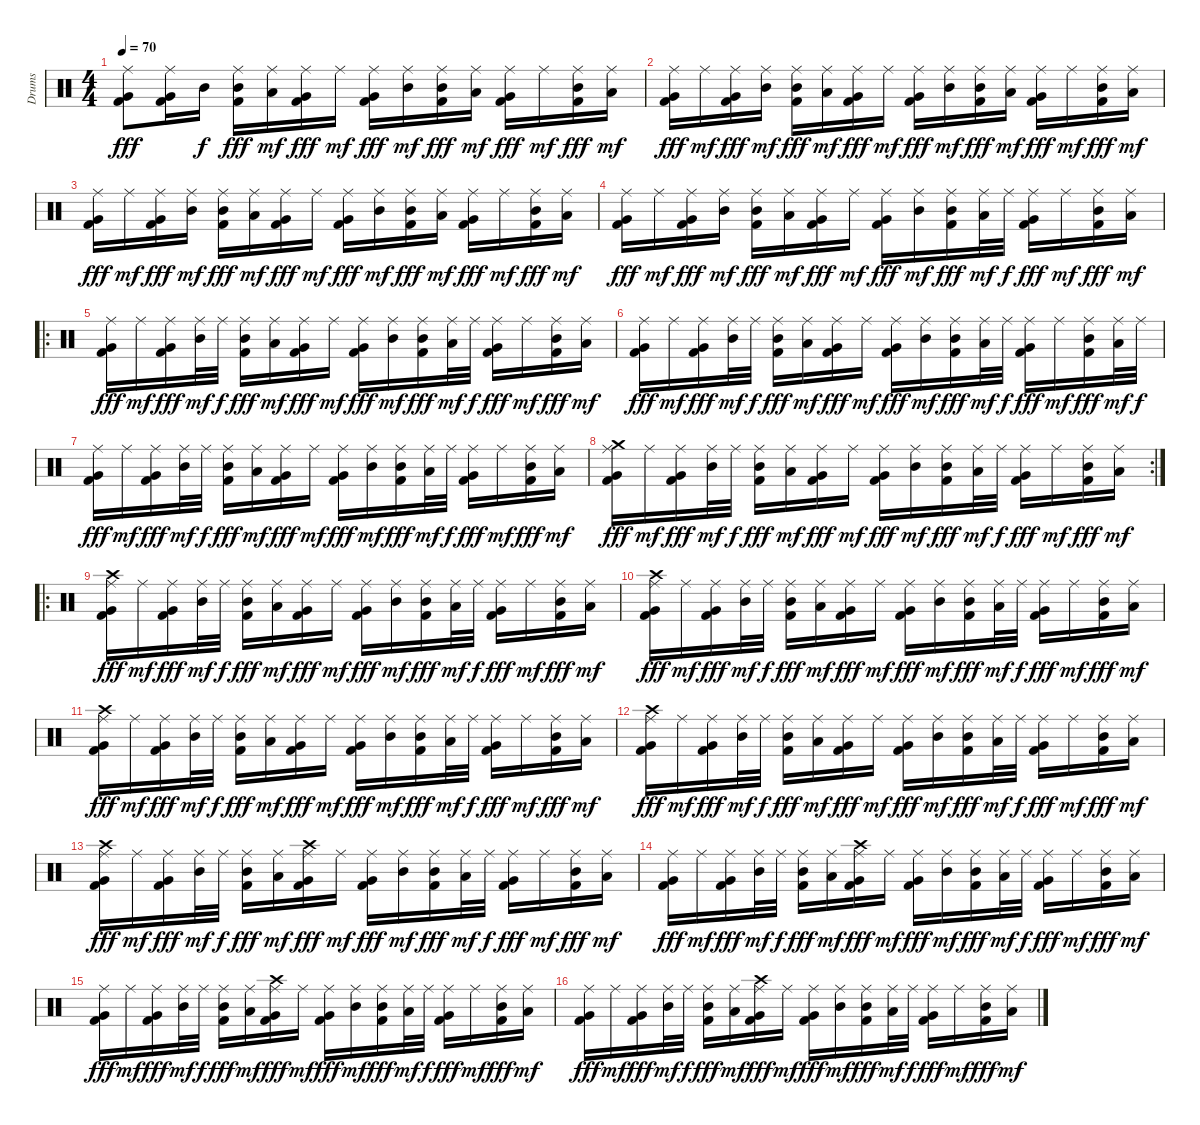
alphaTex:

\track ("Drums" "Drums") {instrument percussion}
\staff {score}
\articulation defaults
\ts (4 4)
\tempo 70
\clef neutral
\ks c
("Ride (middle)" "Kick (hit) 2" "Very Low Tom (hit)").8{dy fff} ("Ride (middle)" "Kick (hit) 2" "Very Low Tom (hit)").16 "Mid Tom (hit)".16{dy f} ("Ride (middle)" "Kick (hit) 2" "Mid Tom (hit)").16{dy fff} ("Ride (middle)" "Low Tom (hit)").16{dy mf} ("Ride (middle)" "Kick (hit) 2" "Very Low Tom (hit)").16{dy fff} "Ride (middle)".16{dy mf} ("Ride (middle)" "Kick (hit) 2" "Very Low Tom (hit)").16{dy fff} ("Ride (middle)" "Mid Tom (hit)").16{dy mf} ("Ride (middle)" "Kick (hit) 2" "Mid Tom (hit)").16{dy fff} ("Ride (middle)" "Low Tom (hit)").16{dy mf} ("Ride (middle)" "Kick (hit) 2" "Very Low Tom (hit)").16{dy fff} "Ride (middle)".16{dy mf} ("Ride (middle)" "Kick (hit) 2" "Mid Tom (hit)").16{dy fff} ("Ride (middle)" "Low Tom (hit)").16{dy mf} |
("Ride (middle)" "Kick (hit) 2" "Very Low Tom (hit)").16{dy fff} "Ride (middle)".16{dy mf} ("Ride (middle)" "Kick (hit) 2" "Very Low Tom (hit)").16{dy fff} ("Ride (middle)" "Mid Tom (hit)").16{dy mf} ("Ride (middle)" "Kick (hit) 2" "Mid Tom (hit)").16{dy fff} ("Ride (middle)" "Low Tom (hit)").16{dy mf} ("Ride (middle)" "Kick (hit) 2" "Very Low Tom (hit)").16{dy fff} "Ride (middle)".16{dy mf} ("Ride (middle)" "Kick (hit) 2" "Very Low Tom (hit)").16{dy fff} ("Ride (middle)" "Mid Tom (hit)").16{dy mf} ("Ride (middle)" "Kick (hit) 2" "Mid Tom (hit)").16{dy fff} ("Ride (middle)" "Low Tom (hit)").16{dy mf} ("Ride (middle)" "Kick (hit) 2" "Very Low Tom (hit)").16{dy fff} "Ride (middle)".16{dy mf} ("Ride (middle)" "Kick (hit) 2" "Mid Tom (hit)").16{dy fff} ("Ride (middle)" "Low Tom (hit)").16{dy mf} |
("Ride (middle)" "Kick (hit) 2" "Very Low Tom (hit)").16{dy fff} "Ride (middle)".16{dy mf} ("Ride (middle)" "Kick (hit) 2" "Very Low Tom (hit)").16{dy fff} ("Ride (middle)" "Mid Tom (hit)").16{dy mf} ("Ride (middle)" "Kick (hit) 2" "Mid Tom (hit)").16{dy fff} ("Ride (middle)" "Low Tom (hit)").16{dy mf} ("Ride (middle)" "Kick (hit) 2" "Very Low Tom (hit)").16{dy fff} "Ride (middle)".16{dy mf} ("Ride (middle)" "Kick (hit) 2" "Very Low Tom (hit)").16{dy fff} ("Ride (middle)" "Mid Tom (hit)").16{dy mf} ("Ride (middle)" "Kick (hit) 2" "Mid Tom (hit)").16{dy fff} ("Ride (middle)" "Low Tom (hit)").16{dy mf} ("Ride (middle)" "Kick (hit) 2" "Very Low Tom (hit)").16{dy fff} "Ride (middle)".16{dy mf} ("Ride (middle)" "Kick (hit) 2" "Mid Tom (hit)").16{dy fff} ("Ride (middle)" "Low Tom (hit)").16{dy mf} |
("Ride (middle)" "Kick (hit) 2" "Very Low Tom (hit)").16{dy fff} "Ride (middle)".16{dy mf} ("Ride (middle)" "Kick (hit) 2" "Very Low Tom (hit)").16{dy fff} ("Ride (middle)" "Mid Tom (hit)").16{dy mf} ("Ride (middle)" "Kick (hit) 2" "Mid Tom (hit)").16{dy fff} ("Ride (middle)" "Low Tom (hit)").16{dy mf} ("Ride (middle)" "Kick (hit) 2" "Very Low Tom (hit)").16{dy fff} "Ride (middle)".16{dy mf} ("Ride (middle)" "Kick (hit) 2" "Very Low Tom (hit)").16{dy fff} ("Ride (middle)" "Mid Tom (hit)").16{dy mf} ("Ride (middle)" "Kick (hit) 2" "Mid Tom (hit)").16{dy fff} ("Ride (middle)" "Low Tom (hit)").32{dy mf} "Ride (middle)".32{dy f} ("Ride (middle)" "Kick (hit) 2" "Very Low Tom (hit)").16{dy fff} "Ride (middle)".16{dy mf} ("Ride (middle)" "Kick (hit) 2" "Mid Tom (hit)").16{dy fff} ("Ride (middle)" "Low Tom (hit)").16{dy mf} |
\ro
("Ride (middle)" "Kick (hit) 2" "Very Low Tom (hit)").16{dy fff} "Ride (middle)".16{dy mf} ("Ride (middle)" "Kick (hit) 2" "Very Low Tom (hit)").16{dy fff} ("Ride (middle)" "Mid Tom (hit)").32{dy mf} "Ride (middle)".32{dy f} ("Ride (middle)" "Kick (hit) 2" "Mid Tom (hit)").16{dy fff} ("Ride (middle)" "Low Tom (hit)").16{dy mf} ("Ride (middle)" "Kick (hit) 2" "Very Low Tom (hit)").16{dy fff} "Ride (middle)".16{dy mf} ("Ride (middle)" "Kick (hit) 2" "Very Low Tom (hit)").16{dy fff} ("Ride (middle)" "Mid Tom (hit)").16{dy mf} ("Ride (middle)" "Kick (hit) 2" "Mid Tom (hit)").16{dy fff} ("Ride (middle)" "Low Tom (hit)").32{dy mf} "Ride (middle)".32{dy f} ("Ride (middle)" "Kick (hit) 2" "Very Low Tom (hit)").16{dy fff} "Ride (middle)".16{dy mf} ("Ride (middle)" "Kick (hit) 2" "Mid Tom (hit)").16{dy fff} ("Ride (middle)" "Low Tom (hit)").16{dy mf} |
("Ride (middle)" "Kick (hit) 2" "Very Low Tom (hit)").16{dy fff} "Ride (middle)".16{dy mf} ("Ride (middle)" "Kick (hit) 2" "Very Low Tom (hit)").16{dy fff} ("Ride (middle)" "Mid Tom (hit)").32{dy mf} "Ride (middle)".32{dy f} ("Ride (middle)" "Kick (hit) 2" "Mid Tom (hit)").16{dy fff} ("Ride (middle)" "Low Tom (hit)").16{dy mf} ("Ride (middle)" "Kick (hit) 2" "Very Low Tom (hit)").16{dy fff} "Ride (middle)".16{dy mf} ("Ride (middle)" "Kick (hit) 2" "Very Low Tom (hit)").16{dy fff} ("Ride (middle)" "Mid Tom (hit)").16{dy mf} ("Ride (middle)" "Kick (hit) 2" "Mid Tom (hit)").16{dy fff} ("Ride (middle)" "Low Tom (hit)").32{dy mf} "Ride (middle)".32{dy f} ("Ride (middle)" "Kick (hit) 2" "Very Low Tom (hit)").16{dy fff} "Ride (middle)".16{dy mf} ("Ride (middle)" "Kick (hit) 2" "Mid Tom (hit)").16{dy fff} ("Ride (middle)" "Low Tom (hit)").32{dy mf} "Ride (middle)".32{dy f} |
("Ride (middle)" "Kick (hit) 2" "Very Low Tom (hit)").16{dy fff} "Ride (middle)".16{dy mf} ("Ride (middle)" "Kick (hit) 2" "Very Low Tom (hit)").16{dy fff} ("Ride (middle)" "Mid Tom (hit)").32{dy mf} "Ride (middle)".32{dy f} ("Ride (middle)" "Kick (hit) 2" "Mid Tom (hit)").16{dy fff} ("Ride (middle)" "Low Tom (hit)").16{dy mf} ("Ride (middle)" "Kick (hit) 2" "Very Low Tom (hit)").16{dy fff} "Ride (middle)".16{dy mf} ("Ride (middle)" "Kick (hit) 2" "Very Low Tom (hit)").16{dy fff} ("Ride (middle)" "Mid Tom (hit)").16{dy mf} ("Ride (middle)" "Kick (hit) 2" "Mid Tom (hit)").16{dy fff} ("Ride (middle)" "Low Tom (hit)").32{dy mf} "Ride (middle)".32{dy f} ("Ride (middle)" "Kick (hit) 2" "Very Low Tom (hit)").16{dy fff} "Ride (middle)".16{dy mf} ("Ride (middle)" "Kick (hit) 2" "Mid Tom (hit)").16{dy fff} ("Ride (middle)" "Low Tom (hit)").16{dy mf} |
\rc 2
("Crash medium (hit)" "Ride (middle)" "Kick (hit) 2" "Very Low Tom (hit)").16{dy fff} "Ride (middle)".16{dy mf} ("Ride (middle)" "Kick (hit) 2" "Very Low Tom (hit)").16{dy fff} ("Ride (middle)" "Mid Tom (hit)").32{dy mf} "Ride (middle)".32{dy f} ("Ride (middle)" "Kick (hit) 2" "Mid Tom (hit)").16{dy fff} ("Ride (middle)" "Low Tom (hit)").16{dy mf} ("Ride (middle)" "Kick (hit) 2" "Very Low Tom (hit)").16{dy fff} "Ride (middle)".16{dy mf} ("Ride (middle)" "Kick (hit) 2" "Very Low Tom (hit)").16{dy fff} ("Ride (middle)" "Mid Tom (hit)").16{dy mf} ("Ride (middle)" "Kick (hit) 2" "Mid Tom (hit)").16{dy fff} ("Ride (middle)" "Low Tom (hit)").32{dy mf} "Ride (middle)".32{dy f} ("Ride (middle)" "Kick (hit) 2" "Very Low Tom (hit)").16{dy fff} "Ride (middle)".16{dy mf} ("Ride (middle)" "Kick (hit) 2" "Mid Tom (hit)").16{dy fff} ("Ride (middle)" "Low Tom (hit)").16{dy mf} |
\ro
("Crash high (hit)" "Ride (middle)" "Kick (hit) 2" "Very Low Tom (hit)").16{dy fff} "Ride (middle)".16{dy mf} ("Ride (middle)" "Kick (hit) 2" "Very Low Tom (hit)").16{dy fff} ("Ride (middle)" "Mid Tom (hit)").32{dy mf} "Ride (middle)".32{dy f} ("Ride (middle)" "Kick (hit) 2" "Mid Tom (hit)").16{dy fff} ("Ride (middle)" "Low Tom (hit)").16{dy mf} ("Ride (middle)" "Kick (hit) 2" "Very Low Tom (hit)").16{dy fff} "Ride (middle)".16{dy mf} ("Ride (middle)" "Kick (hit) 2" "Very Low Tom (hit)").16{dy fff} ("Ride (middle)" "Mid Tom (hit)").16{dy mf} ("Ride (middle)" "Kick (hit) 2" "Mid Tom (hit)").16{dy fff} ("Ride (middle)" "Low Tom (hit)").32{dy mf} "Ride (middle)".32{dy f} ("Ride (middle)" "Kick (hit) 2" "Very Low Tom (hit)").16{dy fff} "Ride (middle)".16{dy mf} ("Ride (middle)" "Kick (hit) 2" "Mid Tom (hit)").16{dy fff} ("Ride (middle)" "Low Tom (hit)").16{dy mf} |
("Crash high (hit)" "Ride (middle)" "Kick (hit) 2" "Very Low Tom (hit)").16{dy fff} "Ride (middle)".16{dy mf} ("Ride (middle)" "Kick (hit) 2" "Very Low Tom (hit)").16{dy fff} ("Ride (middle)" "Mid Tom (hit)").32{dy mf} "Ride (middle)".32{dy f} ("Ride (middle)" "Kick (hit) 2" "Mid Tom (hit)").16{dy fff} ("Ride (middle)" "Low Tom (hit)").16{dy mf} ("Ride (middle)" "Kick (hit) 2" "Very Low Tom (hit)").16{dy fff} "Ride (middle)".16{dy mf} ("Ride (middle)" "Kick (hit) 2" "Very Low Tom (hit)").16{dy fff} ("Ride (middle)" "Mid Tom (hit)").16{dy mf} ("Ride (middle)" "Kick (hit) 2" "Mid Tom (hit)").16{dy fff} ("Ride (middle)" "Low Tom (hit)").32{dy mf} "Ride (middle)".32{dy f} ("Ride (middle)" "Kick (hit) 2" "Very Low Tom (hit)").16{dy fff} "Ride (middle)".16{dy mf} ("Ride (middle)" "Kick (hit) 2" "Mid Tom (hit)").16{dy fff} ("Ride (middle)" "Low Tom (hit)").16{dy mf} |
("Crash high (hit)" "Ride (middle)" "Kick (hit) 2" "Very Low Tom (hit)").16{dy fff} "Ride (middle)".16{dy mf} ("Ride (middle)" "Kick (hit) 2" "Very Low Tom (hit)").16{dy fff} ("Ride (middle)" "Mid Tom (hit)").32{dy mf} "Ride (middle)".32{dy f} ("Ride (middle)" "Kick (hit) 2" "Mid Tom (hit)").16{dy fff} ("Ride (middle)" "Low Tom (hit)").16{dy mf} ("Ride (middle)" "Kick (hit) 2" "Very Low Tom (hit)").16{dy fff} "Ride (middle)".16{dy mf} ("Ride (middle)" "Kick (hit) 2" "Very Low Tom (hit)").16{dy fff} ("Ride (middle)" "Mid Tom (hit)").16{dy mf} ("Ride (middle)" "Kick (hit) 2" "Mid Tom (hit)").16{dy fff} ("Ride (middle)" "Low Tom (hit)").32{dy mf} "Ride (middle)".32{dy f} ("Ride (middle)" "Kick (hit) 2" "Very Low Tom (hit)").16{dy fff} "Ride (middle)".16{dy mf} ("Ride (middle)" "Kick (hit) 2" "Mid Tom (hit)").16{dy fff} ("Ride (middle)" "Low Tom (hit)").16{dy mf} |
("Crash high (hit)" "Ride (middle)" "Kick (hit) 2" "Very Low Tom (hit)").16{dy fff} "Ride (middle)".16{dy mf} ("Ride (middle)" "Kick (hit) 2" "Very Low Tom (hit)").16{dy fff} ("Ride (middle)" "Mid Tom (hit)").32{dy mf} "Ride (middle)".32{dy f} ("Ride (middle)" "Kick (hit) 2" "Mid Tom (hit)").16{dy fff} ("Ride (middle)" "Low Tom (hit)").16{dy mf} ("Ride (middle)" "Kick (hit) 2" "Very Low Tom (hit)").16{dy fff} "Ride (middle)".16{dy mf} ("Ride (middle)" "Kick (hit) 2" "Very Low Tom (hit)").16{dy fff} ("Ride (middle)" "Mid Tom (hit)").16{dy mf} ("Ride (middle)" "Kick (hit) 2" "Mid Tom (hit)").16{dy fff} ("Ride (middle)" "Low Tom (hit)").32{dy mf} "Ride (middle)".32{dy f} ("Ride (middle)" "Kick (hit) 2" "Very Low Tom (hit)").16{dy fff} "Ride (middle)".16{dy mf} ("Ride (middle)" "Kick (hit) 2" "Mid Tom (hit)").16{dy fff} ("Ride (middle)" "Low Tom (hit)").16{dy mf} |
("Crash high (hit)" "Ride (middle)" "Kick (hit) 2" "Very Low Tom (hit)").16{dy fff} "Ride (middle)".16{dy mf} ("Ride (middle)" "Kick (hit) 2" "Very Low Tom (hit)").16{dy fff} ("Ride (middle)" "Mid Tom (hit)").32{dy mf} "Ride (middle)".32{dy f} ("Ride (middle)" "Kick (hit) 2" "Mid Tom (hit)").16{dy fff} ("Ride (middle)" "Low Tom (hit)").16{dy mf} ("Crash high (hit)" "Ride (middle)" "Kick (hit) 2" "Very Low Tom (hit)").16{dy fff} "Ride (middle)".16{dy mf} ("Ride (middle)" "Kick (hit) 2" "Very Low Tom (hit)").16{dy fff} ("Ride (middle)" "Mid Tom (hit)").16{dy mf} ("Ride (middle)" "Kick (hit) 2" "Mid Tom (hit)").16{dy fff} ("Ride (middle)" "Low Tom (hit)").32{dy mf} "Ride (middle)".32{dy f} ("Ride (middle)" "Kick (hit) 2" "Very Low Tom (hit)").16{dy fff} "Ride (middle)".16{dy mf} ("Ride (middle)" "Kick (hit) 2" "Mid Tom (hit)").16{dy fff} ("Ride (middle)" "Low Tom (hit)").16{dy mf} |
("Ride (middle)" "Kick (hit) 2" "Very Low Tom (hit)").16{dy fff} "Ride (middle)".16{dy mf} ("Ride (middle)" "Kick (hit) 2" "Very Low Tom (hit)").16{dy fff} ("Ride (middle)" "Mid Tom (hit)").32{dy mf} "Ride (middle)".32{dy f} ("Ride (middle)" "Kick (hit) 2" "Mid Tom (hit)").16{dy fff} ("Ride (middle)" "Low Tom (hit)").16{dy mf} ("Crash high (hit)" "Ride (middle)" "Kick (hit) 2" "Very Low Tom (hit)").16{dy fff} "Ride (middle)".16{dy mf} ("Ride (middle)" "Kick (hit) 2" "Very Low Tom (hit)").16{dy fff} ("Ride (middle)" "Mid Tom (hit)").16{dy mf} ("Ride (middle)" "Kick (hit) 2" "Mid Tom (hit)").16{dy fff} ("Ride (middle)" "Low Tom (hit)").32{dy mf} "Ride (middle)".32{dy f} ("Ride (middle)" "Kick (hit) 2" "Very Low Tom (hit)").16{dy fff} "Ride (middle)".16{dy mf} ("Ride (middle)" "Kick (hit) 2" "Mid Tom (hit)").16{dy fff} ("Ride (middle)" "Low Tom (hit)").16{dy mf} |
("Ride (middle)" "Kick (hit) 2" "Very Low Tom (hit)").16{dy fff} "Ride (middle)".16{dy mf} ("Ride (middle)" "Kick (hit) 2" "Very Low Tom (hit)").16{dy fff} ("Ride (middle)" "Mid Tom (hit)").32{dy mf} "Ride (middle)".32{dy f} ("Ride (middle)" "Kick (hit) 2" "Mid Tom (hit)").16{dy fff} ("Ride (middle)" "Low Tom (hit)").16{dy mf} ("Crash high (hit)" "Ride (middle)" "Kick (hit) 2" "Very Low Tom (hit)").16{dy fff} "Ride (middle)".16{dy mf} ("Ride (middle)" "Kick (hit) 2" "Very Low Tom (hit)").16{dy fff} ("Ride (middle)" "Mid Tom (hit)").16{dy mf} ("Ride (middle)" "Kick (hit) 2" "Mid Tom (hit)").16{dy fff} ("Ride (middle)" "Low Tom (hit)").32{dy mf} "Ride (middle)".32{dy f} ("Ride (middle)" "Kick (hit) 2" "Very Low Tom (hit)").16{dy fff} "Ride (middle)".16{dy mf} ("Ride (middle)" "Kick (hit) 2" "Mid Tom (hit)").16{dy fff} ("Ride (middle)" "Low Tom (hit)").16{dy mf} |
("Ride (middle)" "Kick (hit) 2" "Very Low Tom (hit)").16{dy fff} "Ride (middle)".16{dy mf} ("Ride (middle)" "Kick (hit) 2" "Very Low Tom (hit)").16{dy fff} ("Ride (middle)" "Mid Tom (hit)").32{dy mf} "Ride (middle)".32{dy f} ("Ride (middle)" "Kick (hit) 2" "Mid Tom (hit)").16{dy fff} ("Ride (middle)" "Low Tom (hit)").16{dy mf} ("Crash high (hit)" "Ride (middle)" "Kick (hit) 2" "Very Low Tom (hit)").16{dy fff} "Ride (middle)".16{dy mf} ("Ride (middle)" "Kick (hit) 2" "Very Low Tom (hit)").16{dy fff} ("Ride (middle)" "Mid Tom (hit)").16{dy mf} ("Ride (middle)" "Kick (hit) 2" "Mid Tom (hit)").16{dy fff} ("Ride (middle)" "Low Tom (hit)").32{dy mf} "Ride (middle)".32{dy f} ("Ride (middle)" "Kick (hit) 2" "Very Low Tom (hit)").16{dy fff} "Ride (middle)".16{dy mf} ("Ride (middle)" "Kick (hit) 2" "Mid Tom (hit)").16{dy fff} ("Ride (middle)" "Low Tom (hit)").16{dy mf}
